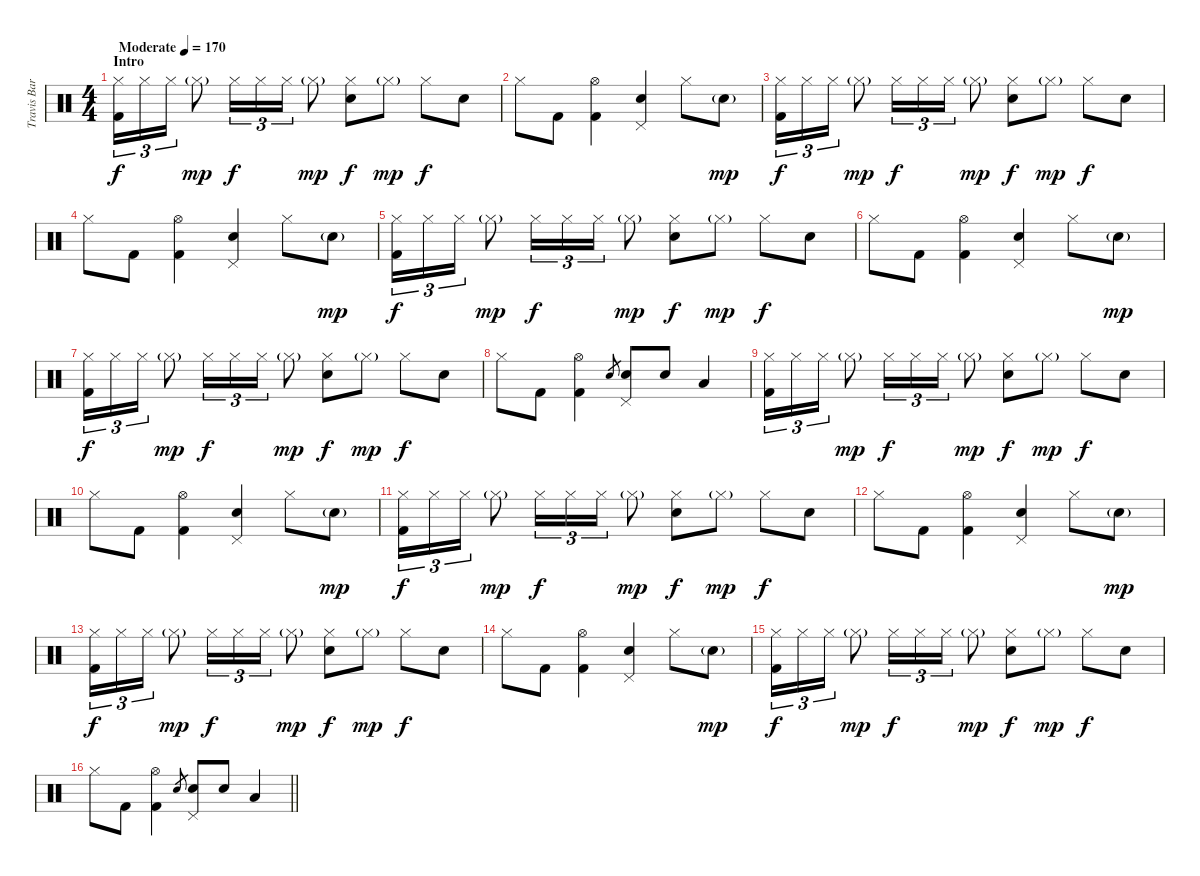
\track ("Travis Barker - Drums" "Travis Bar") {instrument percussion}
\staff {score}
\articulation defaults
\ts (4 4)
\section ("" "Intro")
\tempo (170 "Moderate")
\clef neutral
\ks c
("Hi-Hat (closed)" "Kick (hit) 2").16{tu (3 2) dy f} "Hi-Hat (closed)".16{tu (3 2)} "Hi-Hat (closed)".16{tu (3 2)} "Hi-Hat (closed)"{g}.8{dy mp} "Hi-Hat (closed)".16{tu (3 2) dy f} "Hi-Hat (closed)".16{tu (3 2)} "Hi-Hat (closed)".16{tu (3 2)} "Hi-Hat (closed)"{g}.8{dy mp} ("Hi-Hat (closed)" "Electric Snare (hit)").8{dy f} "Hi-Hat (closed)"{g}.8{dy mp} "Hi-Hat (closed)".8{dy f} "Electric Snare (hit)".8 |
"Hi-Hat (closed)".8 "Kick (hit) 2".8 ("Hi-Hat (open)" "Kick (hit) 2").4 ("Pedal Hi-Hat (hit)" "Electric Snare (hit)").4 "Hi-Hat (closed)".8 "Electric Snare (hit)"{g}.8{dy mp} |
("Hi-Hat (closed)" "Kick (hit) 2").16{tu (3 2) dy f} "Hi-Hat (closed)".16{tu (3 2)} "Hi-Hat (closed)".16{tu (3 2)} "Hi-Hat (closed)"{g}.8{dy mp} "Hi-Hat (closed)".16{tu (3 2) dy f} "Hi-Hat (closed)".16{tu (3 2)} "Hi-Hat (closed)".16{tu (3 2)} "Hi-Hat (closed)"{g}.8{dy mp} ("Hi-Hat (closed)" "Electric Snare (hit)").8{dy f} "Hi-Hat (closed)"{g}.8{dy mp} "Hi-Hat (closed)".8{dy f} "Electric Snare (hit)".8 |
"Hi-Hat (closed)".8 "Kick (hit) 2".8 ("Hi-Hat (open)" "Kick (hit) 2").4 ("Pedal Hi-Hat (hit)" "Electric Snare (hit)").4 "Hi-Hat (closed)".8 "Electric Snare (hit)"{g}.8{dy mp} |
("Hi-Hat (closed)" "Kick (hit) 2").16{tu (3 2) dy f} "Hi-Hat (closed)".16{tu (3 2)} "Hi-Hat (closed)".16{tu (3 2)} "Hi-Hat (closed)"{g}.8{dy mp} "Hi-Hat (closed)".16{tu (3 2) dy f} "Hi-Hat (closed)".16{tu (3 2)} "Hi-Hat (closed)".16{tu (3 2)} "Hi-Hat (closed)"{g}.8{dy mp} ("Hi-Hat (closed)" "Electric Snare (hit)").8{dy f} "Hi-Hat (closed)"{g}.8{dy mp} "Hi-Hat (closed)".8{dy f} "Electric Snare (hit)".8 |
"Hi-Hat (closed)".8 "Kick (hit) 2".8 ("Hi-Hat (open)" "Kick (hit) 2").4 ("Pedal Hi-Hat (hit)" "Electric Snare (hit)").4 "Hi-Hat (closed)".8 "Electric Snare (hit)"{g}.8{dy mp} |
("Hi-Hat (closed)" "Kick (hit) 2").16{tu (3 2) dy f} "Hi-Hat (closed)".16{tu (3 2)} "Hi-Hat (closed)".16{tu (3 2)} "Hi-Hat (closed)"{g}.8{dy mp} "Hi-Hat (closed)".16{tu (3 2) dy f} "Hi-Hat (closed)".16{tu (3 2)} "Hi-Hat (closed)".16{tu (3 2)} "Hi-Hat (closed)"{g}.8{dy mp} ("Hi-Hat (closed)" "Electric Snare (hit)").8{dy f} "Hi-Hat (closed)"{g}.8{dy mp} "Hi-Hat (closed)".8{dy f} "Electric Snare (hit)".8 |
"Hi-Hat (closed)".8 "Kick (hit) 2".8 ("Hi-Hat (open)" "Kick (hit) 2").4 "Electric Snare (hit)".8{gr} ("Pedal Hi-Hat (hit)" "Electric Snare (hit)").8 "Electric Snare (hit)".8 "Low Tom (hit)".4 |
("Hi-Hat (closed)" "Kick (hit) 2").16{tu (3 2)} "Hi-Hat (closed)".16{tu (3 2)} "Hi-Hat (closed)".16{tu (3 2)} "Hi-Hat (closed)"{g}.8{dy mp} "Hi-Hat (closed)".16{tu (3 2) dy f} "Hi-Hat (closed)".16{tu (3 2)} "Hi-Hat (closed)".16{tu (3 2)} "Hi-Hat (closed)"{g}.8{dy mp} ("Hi-Hat (closed)" "Electric Snare (hit)").8{dy f} "Hi-Hat (closed)"{g}.8{dy mp} "Hi-Hat (closed)".8{dy f} "Electric Snare (hit)".8 |
"Hi-Hat (closed)".8 "Kick (hit) 2".8 ("Hi-Hat (open)" "Kick (hit) 2").4 ("Pedal Hi-Hat (hit)" "Electric Snare (hit)").4 "Hi-Hat (closed)".8 "Electric Snare (hit)"{g}.8{dy mp} |
("Hi-Hat (closed)" "Kick (hit) 2").16{tu (3 2) dy f} "Hi-Hat (closed)".16{tu (3 2)} "Hi-Hat (closed)".16{tu (3 2)} "Hi-Hat (closed)"{g}.8{dy mp} "Hi-Hat (closed)".16{tu (3 2) dy f} "Hi-Hat (closed)".16{tu (3 2)} "Hi-Hat (closed)".16{tu (3 2)} "Hi-Hat (closed)"{g}.8{dy mp} ("Hi-Hat (closed)" "Electric Snare (hit)").8{dy f} "Hi-Hat (closed)"{g}.8{dy mp} "Hi-Hat (closed)".8{dy f} "Electric Snare (hit)".8 |
"Hi-Hat (closed)".8 "Kick (hit) 2".8 ("Hi-Hat (open)" "Kick (hit) 2").4 ("Pedal Hi-Hat (hit)" "Electric Snare (hit)").4 "Hi-Hat (closed)".8 "Electric Snare (hit)"{g}.8{dy mp} |
("Hi-Hat (closed)" "Kick (hit) 2").16{tu (3 2) dy f} "Hi-Hat (closed)".16{tu (3 2)} "Hi-Hat (closed)".16{tu (3 2)} "Hi-Hat (closed)"{g}.8{dy mp} "Hi-Hat (closed)".16{tu (3 2) dy f} "Hi-Hat (closed)".16{tu (3 2)} "Hi-Hat (closed)".16{tu (3 2)} "Hi-Hat (closed)"{g}.8{dy mp} ("Hi-Hat (closed)" "Electric Snare (hit)").8{dy f} "Hi-Hat (closed)"{g}.8{dy mp} "Hi-Hat (closed)".8{dy f} "Electric Snare (hit)".8 |
"Hi-Hat (closed)".8 "Kick (hit) 2".8 ("Hi-Hat (open)" "Kick (hit) 2").4 ("Pedal Hi-Hat (hit)" "Electric Snare (hit)").4 "Hi-Hat (closed)".8 "Electric Snare (hit)"{g}.8{dy mp} |
("Hi-Hat (closed)" "Kick (hit) 2").16{tu (3 2) dy f} "Hi-Hat (closed)".16{tu (3 2)} "Hi-Hat (closed)".16{tu (3 2)} "Hi-Hat (closed)"{g}.8{dy mp} "Hi-Hat (closed)".16{tu (3 2) dy f} "Hi-Hat (closed)".16{tu (3 2)} "Hi-Hat (closed)".16{tu (3 2)} "Hi-Hat (closed)"{g}.8{dy mp} ("Hi-Hat (closed)" "Electric Snare (hit)").8{dy f} "Hi-Hat (closed)"{g}.8{dy mp} "Hi-Hat (closed)".8{dy f} "Electric Snare (hit)".8 |
\barLineRight lightlight "Hi-Hat (closed)".8 "Kick (hit) 2".8
("Hi-Hat (open)" "Kick (hit) 2").4 "Electric Snare (hit)".8{gr} ("Pedal Hi-Hat (hit)" "Electric Snare (hit)").8 "Electric Snare (hit)".8 "Low Tom (hit)".4
